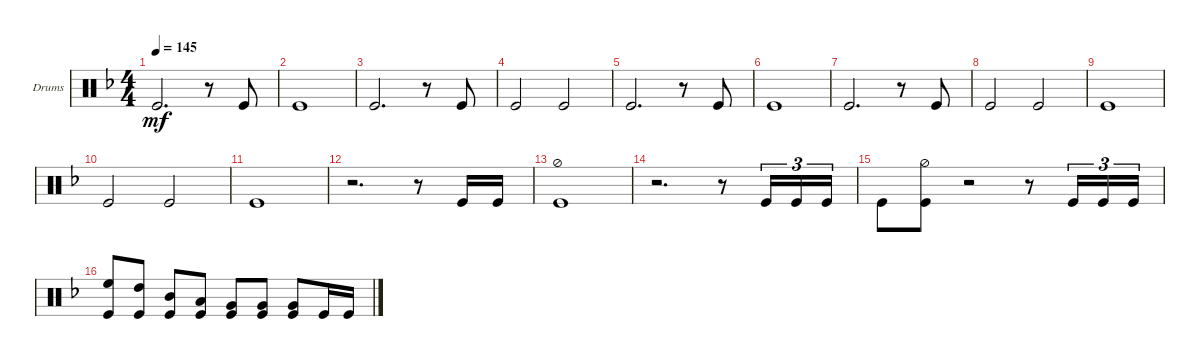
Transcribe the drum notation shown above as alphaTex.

\defaultSystemsLayout 4
\bracketExtendMode groupsimilarinstruments
\firstSystemTrackNameOrientation horizontal
\otherSystemsTrackNameOrientation horizontal
\track ("Drumkit" "Drums") {instrument percussion}
\staff {score}
\articulation defaults
\ts (4 4)
\tempo 145
\clef neutral
\scale
0.333333
\ks dminor "Kick (hit)".2{d dy mf}
r.8 "Kick (hit)".8 |
\scale
0.333333 "Kick (hit)".1 |
\scale
0.333333 "Kick (hit)".2{d} r.8 "Kick (hit)".8 |
\scale
0.333333 "Kick (hit)".2 "Kick (hit)".2 |
\scale
0.333333 "Kick (hit)".2{d} r.8 "Kick (hit)".8 |
\scale
0.333333 "Kick (hit)".1 |
\scale
0.333333 "Kick (hit)".2{d} r.8 "Kick (hit)".8 |
\scale
0.333333 "Kick (hit)".2 "Kick (hit)".2 |
\scale
0.333333 "Kick (hit)".1 |
\scale
0.333333 "Kick (hit)".2 "Kick (hit)".2 |
\scale
0.333333 "Kick (hit)".1 |
\scale
0.333333 r.2{d} r.8 "Kick (hit)".16 "Kick (hit)".16 |
\scale
0.333333 ("Kick (hit)" "Hi-Hat (half)").1 |
r.2{d} r.8 "Kick (hit)".16{tu (3 2)} "Kick (hit)".16{tu (3 2)} "Kick (hit)".16{tu (3 2)} |
"Kick (hit)".8 ("Kick (hit)" "Hi-Hat (half)").8 r.2 r.8 "Kick (hit)".16{tu (3 2)} "Kick (hit)".16{tu (3 2)} "Kick (hit)".16{tu (3 2)} |
("High Floor Tom (hit)" "Kick (hit)").8 ("High Tom (hit)" "Kick (hit)").8 ("Mid Tom (hit)" "Kick (hit)").8 ("Low Tom (hit)" "Kick (hit)").8 ("Very Low Tom (hit)" "Kick (hit)").8 ("Very Low Tom (hit)" "Kick (hit)").8 ("Very Low Tom (hit)" "Kick (hit)").8 "Kick (hit)".16 "Kick (hit)".16
